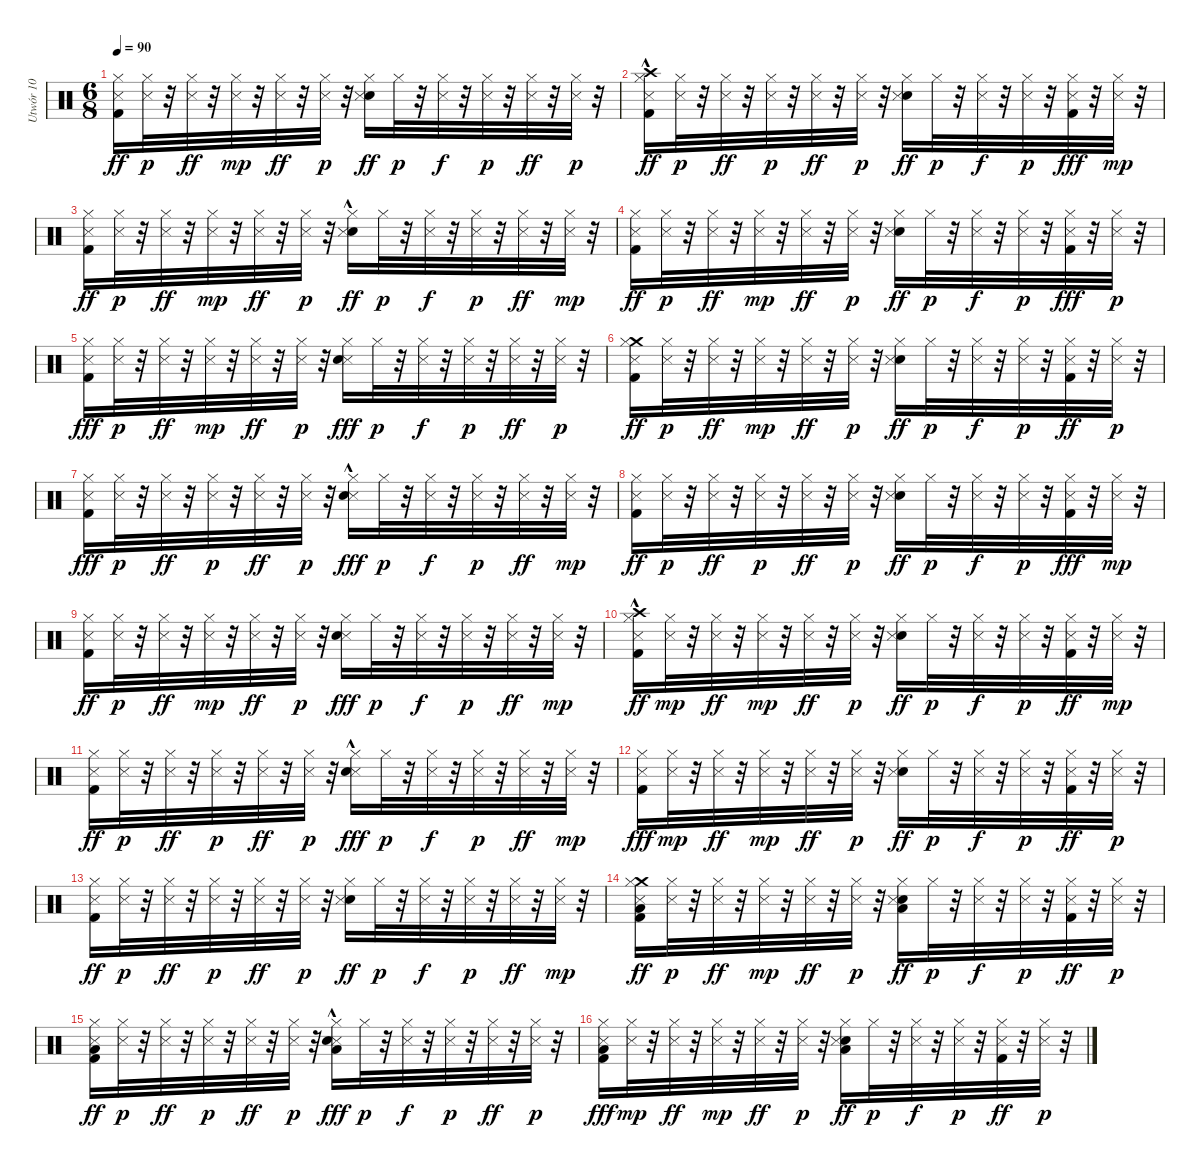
\track ("Utwór 10" "Utwór 10") {instrument percussion}
\staff {score}
\articulation defaults
\ts (6 8)
\tempo 90
\clef neutral
\ks c
("Kick (hit) 2" "Snare (side stick) 3" "Hi-Hat (closed)").16{dy ff} ("Snare (side stick) 3" "Hi-Hat (closed)").32{dy p} r.32 ("Snare (side stick) 3" "Hi-Hat (closed)").32{dy ff} r.32 ("Hi-Hat (closed)" "Snare (side stick) 3").32{dy mp} r.32 ("Hi-Hat (closed)" "Snare (side stick) 3").32{dy ff} r.32 ("Hi-Hat (closed)" "Snare (side stick) 3").32{dy p} r.32 ("Hi-Hat (closed)" "Snare (hit) 2" "Snare (side stick) 3").16{dy ff} "Hi-Hat (closed)".32{dy p} r.32 ("Snare (side stick) 3" "Hi-Hat (closed)").32{dy f} r.32 ("Snare (side stick) 3" "Hi-Hat (closed)").32{dy p} r.32 ("Hi-Hat (closed)" "Snare (side stick) 3").32{dy ff} r.32 ("Snare (side stick) 3" "Hi-Hat (closed)").32{dy p} r.32 |
("Kick (hit) 2" "Snare (side stick) 3" "Crash high (hit)"{hac} "Hi-Hat (closed)").16{dy ff} ("Snare (side stick) 3" "Hi-Hat (closed)").32{dy p} r.32 ("Snare (side stick) 3" "Hi-Hat (closed)").32{dy ff} r.32 ("Snare (side stick) 3" "Hi-Hat (closed)").32{dy p} r.32 ("Hi-Hat (closed)" "Snare (side stick) 3").32{dy ff} r.32 ("Hi-Hat (closed)" "Snare (side stick) 3").32{dy p} r.32 ("Snare (hit) 2" "Snare (side stick) 3" "Hi-Hat (closed)").16{dy ff} "Hi-Hat (closed)".32{dy p} r.32 ("Snare (side stick) 3" "Hi-Hat (closed)").32{dy f} r.32 ("Hi-Hat (closed)" "Snare (side stick) 3").32{dy p} r.32 ("Hi-Hat (closed)" "Snare (side stick) 3" "Kick (hit) 2").32{dy fff} r.32 ("Hi-Hat (closed)" "Snare (side stick) 3").32{dy mp} r.32 |
("Kick (hit) 2" "Snare (side stick) 3" "Hi-Hat (closed)").16{dy ff} ("Snare (side stick) 3" "Hi-Hat (closed)").32{dy p} r.32 ("Hi-Hat (closed)" "Snare (side stick) 3").32{dy ff} r.32 ("Hi-Hat (closed)" "Snare (side stick) 3").32{dy mp} r.32 ("Hi-Hat (closed)" "Snare (side stick) 3").32{dy ff} r.32 ("Snare (side stick) 3" "Hi-Hat (closed)").32{dy p} r.32 ("Hi-Hat (closed)" "Snare (hit) 2"{hac} "Snare (side stick) 3").16{dy ff} "Hi-Hat (closed)".32{dy p} r.32 ("Hi-Hat (closed)" "Snare (side stick) 3").32{dy f} r.32 ("Snare (side stick) 3" "Hi-Hat (closed)").32{dy p} r.32 ("Hi-Hat (closed)" "Snare (side stick) 3").32{dy ff} r.32 ("Hi-Hat (closed)" "Snare (side stick) 3").32{dy mp} r.32 |
("Kick (hit) 2" "Hi-Hat (closed)" "Snare (side stick) 3").16{dy ff} ("Snare (side stick) 3" "Hi-Hat (closed)").32{dy p} r.32 ("Snare (side stick) 3" "Hi-Hat (closed)").32{dy ff} r.32 ("Hi-Hat (closed)" "Snare (side stick) 3").32{dy mp} r.32 ("Hi-Hat (closed)" "Snare (side stick) 3").32{dy ff} r.32 ("Snare (side stick) 3" "Hi-Hat (closed)").32{dy p} r.32 ("Hi-Hat (closed)" "Snare (hit) 2" "Snare (side stick) 3").16{dy ff} "Hi-Hat (closed)".32{dy p} r.32 ("Hi-Hat (closed)" "Snare (side stick) 3").32{dy f} r.32 ("Snare (side stick) 3" "Hi-Hat (closed)").32{dy p} r.32 ("Hi-Hat (closed)" "Snare (side stick) 3" "Kick (hit) 2").32{dy fff} r.32 ("Snare (side stick) 3" "Hi-Hat (closed)").32{dy p} r.32 |
("Hi-Hat (closed)" "Snare (side stick) 3" "Kick (hit) 2").16{dy fff} ("Snare (side stick) 3" "Hi-Hat (closed)").32{dy p} r.32 ("Hi-Hat (closed)" "Snare (side stick) 3").32{dy ff} r.32 ("Hi-Hat (closed)" "Snare (side stick) 3").32{dy mp} r.32 ("Hi-Hat (closed)" "Snare (side stick) 3").32{dy ff} r.32 ("Hi-Hat (closed)" "Snare (side stick) 3").32{dy p} r.32 ("Hi-Hat (closed)" "Snare (side stick) 3" "Snare (hit) 2").16{dy fff} "Hi-Hat (closed)".32{dy p} r.32 ("Snare (side stick) 3" "Hi-Hat (closed)").32{dy f} r.32 ("Snare (side stick) 3" "Hi-Hat (closed)").32{dy p} r.32 ("Snare (side stick) 3" "Hi-Hat (closed)").32{dy ff} r.32 ("Snare (side stick) 3" "Hi-Hat (closed)").32{dy p} r.32 |
("Crash medium (hit)" "Kick (hit) 2" "Snare (side stick) 3" "Hi-Hat (closed)").16{dy ff} ("Snare (side stick) 3" "Hi-Hat (closed)").32{dy p} r.32 ("Snare (side stick) 3" "Hi-Hat (closed)").32{dy ff} r.32 ("Hi-Hat (closed)" "Snare (side stick) 3").32{dy mp} r.32 ("Snare (side stick) 3" "Hi-Hat (closed)").32{dy ff} r.32 ("Hi-Hat (closed)" "Snare (side stick) 3").32{dy p} r.32 ("Snare (hit) 2" "Hi-Hat (closed)" "Snare (side stick) 3").16{dy ff} "Hi-Hat (closed)".32{dy p} r.32 ("Hi-Hat (closed)" "Snare (side stick) 3").32{dy f} r.32 ("Snare (side stick) 3" "Hi-Hat (closed)").32{dy p} r.32 ("Kick (hit) 2" "Snare (side stick) 3" "Hi-Hat (closed)").32{dy ff} r.32 ("Snare (side stick) 3" "Hi-Hat (closed)").32{dy p} r.32 |
("Snare (side stick) 3" "Hi-Hat (closed)" "Kick (hit) 2").16{dy fff} ("Snare (side stick) 3" "Hi-Hat (closed)").32{dy p} r.32 ("Hi-Hat (closed)" "Snare (side stick) 3").32{dy ff} r.32 ("Snare (side stick) 3" "Hi-Hat (closed)").32{dy p} r.32 ("Snare (side stick) 3" "Hi-Hat (closed)").32{dy ff} r.32 ("Hi-Hat (closed)" "Snare (side stick) 3").32{dy p} r.32 ("Hi-Hat (closed)" "Snare (side stick) 3" "Snare (hit) 2"{hac}).16{dy fff} "Hi-Hat (closed)".32{dy p} r.32 ("Hi-Hat (closed)" "Snare (side stick) 3").32{dy f} r.32 ("Snare (side stick) 3" "Hi-Hat (closed)").32{dy p} r.32 ("Hi-Hat (closed)" "Snare (side stick) 3").32{dy ff} r.32 ("Hi-Hat (closed)" "Snare (side stick) 3").32{dy mp} r.32 |
("Kick (hit) 2" "Snare (side stick) 3" "Hi-Hat (closed)").16{dy ff} ("Snare (side stick) 3" "Hi-Hat (closed)").32{dy p} r.32 ("Hi-Hat (closed)" "Snare (side stick) 3").32{dy ff} r.32 ("Snare (side stick) 3" "Hi-Hat (closed)").32{dy p} r.32 ("Hi-Hat (closed)" "Snare (side stick) 3").32{dy ff} r.32 ("Snare (side stick) 3" "Hi-Hat (closed)").32{dy p} r.32 ("Hi-Hat (closed)" "Snare (hit) 2" "Snare (side stick) 3").16{dy ff} "Hi-Hat (closed)".32{dy p} r.32 ("Hi-Hat (closed)" "Snare (side stick) 3").32{dy f} r.32 ("Hi-Hat (closed)" "Snare (side stick) 3").32{dy p} r.32 ("Snare (side stick) 3" "Hi-Hat (closed)" "Kick (hit) 2").32{dy fff} r.32 ("Hi-Hat (closed)" "Snare (side stick) 3").32{dy mp} r.32 |
("Kick (hit) 2" "Snare (side stick) 3" "Hi-Hat (closed)").16{dy ff} ("Snare (side stick) 3" "Hi-Hat (closed)").32{dy p} r.32 ("Hi-Hat (closed)" "Snare (side stick) 3").32{dy ff} r.32 ("Hi-Hat (closed)" "Snare (side stick) 3").32{dy mp} r.32 ("Snare (side stick) 3" "Hi-Hat (closed)").32{dy ff} r.32 ("Snare (side stick) 3" "Hi-Hat (closed)").32{dy p} r.32 ("Snare (side stick) 3" "Hi-Hat (closed)" "Snare (hit) 2").16{dy fff} "Hi-Hat (closed)".32{dy p} r.32 ("Hi-Hat (closed)" "Snare (side stick) 3").32{dy f} r.32 ("Hi-Hat (closed)" "Snare (side stick) 3").32{dy p} r.32 ("Snare (side stick) 3" "Hi-Hat (closed)").32{dy ff} r.32 ("Hi-Hat (closed)" "Snare (side stick) 3").32{dy mp} r.32 |
("Hi-Hat (closed)" "Crash high (hit)"{hac} "Kick (hit) 2" "Snare (side stick) 3").16{dy ff} ("Hi-Hat (closed)" "Snare (side stick) 3").32{dy mp} r.32 ("Snare (side stick) 3" "Hi-Hat (closed)").32{dy ff} r.32 ("Hi-Hat (closed)" "Snare (side stick) 3").32{dy mp} r.32 ("Hi-Hat (closed)" "Snare (side stick) 3").32{dy ff} r.32 ("Snare (side stick) 3" "Hi-Hat (closed)").32{dy p} r.32 ("Snare (hit) 2" "Snare (side stick) 3" "Hi-Hat (closed)").16{dy ff} "Hi-Hat (closed)".32{dy p} r.32 ("Snare (side stick) 3" "Hi-Hat (closed)").32{dy f} r.32 ("Hi-Hat (closed)" "Snare (side stick) 3").32{dy p} r.32 ("Kick (hit) 2" "Snare (side stick) 3" "Hi-Hat (closed)").32{dy ff} r.32 ("Hi-Hat (closed)" "Snare (side stick) 3").32{dy mp} r.32 |
("Kick (hit) 2" "Hi-Hat (closed)" "Snare (side stick) 3").16{dy ff} ("Snare (side stick) 3" "Hi-Hat (closed)").32{dy p} r.32 ("Hi-Hat (closed)" "Snare (side stick) 3").32{dy ff} r.32 ("Snare (side stick) 3" "Hi-Hat (closed)").32{dy p} r.32 ("Hi-Hat (closed)" "Snare (side stick) 3").32{dy ff} r.32 ("Hi-Hat (closed)" "Snare (side stick) 3").32{dy p} r.32 ("Snare (side stick) 3" "Snare (hit) 2"{hac} "Hi-Hat (closed)").16{dy fff} "Hi-Hat (closed)".32{dy p} r.32 ("Hi-Hat (closed)" "Snare (side stick) 3").32{dy f} r.32 ("Snare (side stick) 3" "Hi-Hat (closed)").32{dy p} r.32 ("Snare (side stick) 3" "Hi-Hat (closed)").32{dy ff} r.32 ("Hi-Hat (closed)" "Snare (side stick) 3").32{dy mp} r.32 |
("Hi-Hat (closed)" "Snare (side stick) 3" "Kick (hit) 2").16{dy fff} ("Hi-Hat (closed)" "Snare (side stick) 3").32{dy mp} r.32 ("Snare (side stick) 3" "Hi-Hat (closed)").32{dy ff} r.32 ("Hi-Hat (closed)" "Snare (side stick) 3").32{dy mp} r.32 ("Snare (side stick) 3" "Hi-Hat (closed)").32{dy ff} r.32 ("Hi-Hat (closed)" "Snare (side stick) 3").32{dy p} r.32 ("Snare (hit) 2" "Snare (side stick) 3" "Hi-Hat (closed)").16{dy ff} "Hi-Hat (closed)".32{dy p} r.32 ("Hi-Hat (closed)" "Snare (side stick) 3").32{dy f} r.32 ("Hi-Hat (closed)" "Snare (side stick) 3").32{dy p} r.32 ("Kick (hit) 2" "Hi-Hat (closed)" "Snare (side stick) 3").32{dy ff} r.32 ("Snare (side stick) 3" "Hi-Hat (closed)").32{dy p} r.32 |
("Hi-Hat (closed)" "Kick (hit) 2" "Snare (side stick) 3").16{dy ff} ("Snare (side stick) 3" "Hi-Hat (closed)").32{dy p} r.32 ("Hi-Hat (closed)" "Snare (side stick) 3").32{dy ff} r.32 ("Snare (side stick) 3" "Hi-Hat (closed)").32{dy p} r.32 ("Snare (side stick) 3" "Hi-Hat (closed)").32{dy ff} r.32 ("Snare (side stick) 3" "Hi-Hat (closed)").32{dy p} r.32 ("Snare (hit) 2" "Snare (side stick) 3" "Hi-Hat (closed)").16{dy ff} "Hi-Hat (closed)".32{dy p} r.32 ("Snare (side stick) 3" "Hi-Hat (closed)").32{dy f} r.32 ("Snare (side stick) 3" "Hi-Hat (closed)").32{dy p} r.32 ("Snare (side stick) 3" "Hi-Hat (closed)").32{dy ff} r.32 ("Hi-Hat (closed)" "Snare (side stick) 3").32{dy mp} r.32 |
("Low Floor Tom (hit)" "Snare (side stick) 3" "Kick (hit) 2" "Crash medium (hit)" "Hi-Hat (closed)").16{dy ff} ("Snare (side stick) 3" "Hi-Hat (closed)").32{dy p} r.32 ("Hi-Hat (closed)" "Snare (side stick) 3").32{dy ff} r.32 ("Hi-Hat (closed)" "Snare (side stick) 3").32{dy mp} r.32 ("Hi-Hat (closed)" "Snare (side stick) 3").32{dy ff} r.32 ("Hi-Hat (closed)" "Snare (side stick) 3").32{dy p} r.32 ("Hi-Hat (closed)" "Snare (hit) 2" "Low Floor Tom (hit)" "Snare (side stick) 3").16{dy ff} "Hi-Hat (closed)".32{dy p} r.32 ("Hi-Hat (closed)" "Snare (side stick) 3").32{dy f} r.32 ("Snare (side stick) 3" "Hi-Hat (closed)").32{dy p} r.32 ("Kick (hit) 2" "Snare (side stick) 3" "Hi-Hat (closed)").32{dy ff} r.32 ("Snare (side stick) 3" "Hi-Hat (closed)").32{dy p} r.32 |
("Kick (hit) 2" "Snare (side stick) 3" "Low Floor Tom (hit)" "Hi-Hat (closed)").16{dy ff} ("Snare (side stick) 3" "Hi-Hat (closed)").32{dy p} r.32 ("Snare (side stick) 3" "Hi-Hat (closed)").32{dy ff} r.32 ("Snare (side stick) 3" "Hi-Hat (closed)").32{dy p} r.32 ("Snare (side stick) 3" "Hi-Hat (closed)").32{dy ff} r.32 ("Hi-Hat (closed)" "Snare (side stick) 3").32{dy p} r.32 ("Snare (side stick) 3" "Low Floor Tom (hit)" "Snare (hit) 2"{hac} "Hi-Hat (closed)").16{dy fff} "Hi-Hat (closed)".32{dy p} r.32 ("Hi-Hat (closed)" "Snare (side stick) 3").32{dy f} r.32 ("Hi-Hat (closed)" "Snare (side stick) 3").32{dy p} r.32 ("Snare (side stick) 3" "Hi-Hat (closed)").32{dy ff} r.32 ("Snare (side stick) 3" "Hi-Hat (closed)").32{dy p} r.32 |
("Snare (side stick) 3" "Low Floor Tom (hit)" "Hi-Hat (closed)" "Kick (hit) 2").16{dy fff} ("Hi-Hat (closed)" "Snare (side stick) 3").32{dy mp} r.32 ("Hi-Hat (closed)" "Snare (side stick) 3").32{dy ff} r.32 ("Hi-Hat (closed)" "Snare (side stick) 3").32{dy mp} r.32 ("Snare (side stick) 3" "Hi-Hat (closed)").32{dy ff} r.32 ("Snare (side stick) 3" "Hi-Hat (closed)").32{dy p} r.32 ("Snare (hit) 2" "Hi-Hat (closed)" "Snare (side stick) 3" "Low Floor Tom (hit)").16{dy ff} "Hi-Hat (closed)".32{dy p} r.32 ("Snare (side stick) 3" "Hi-Hat (closed)").32{dy f} r.32 ("Snare (side stick) 3" "Hi-Hat (closed)").32{dy p} r.32 ("Hi-Hat (closed)" "Kick (hit) 2" "Snare (side stick) 3").32{dy ff} r.32 ("Snare (side stick) 3" "Hi-Hat (closed)").32{dy p} r.32
